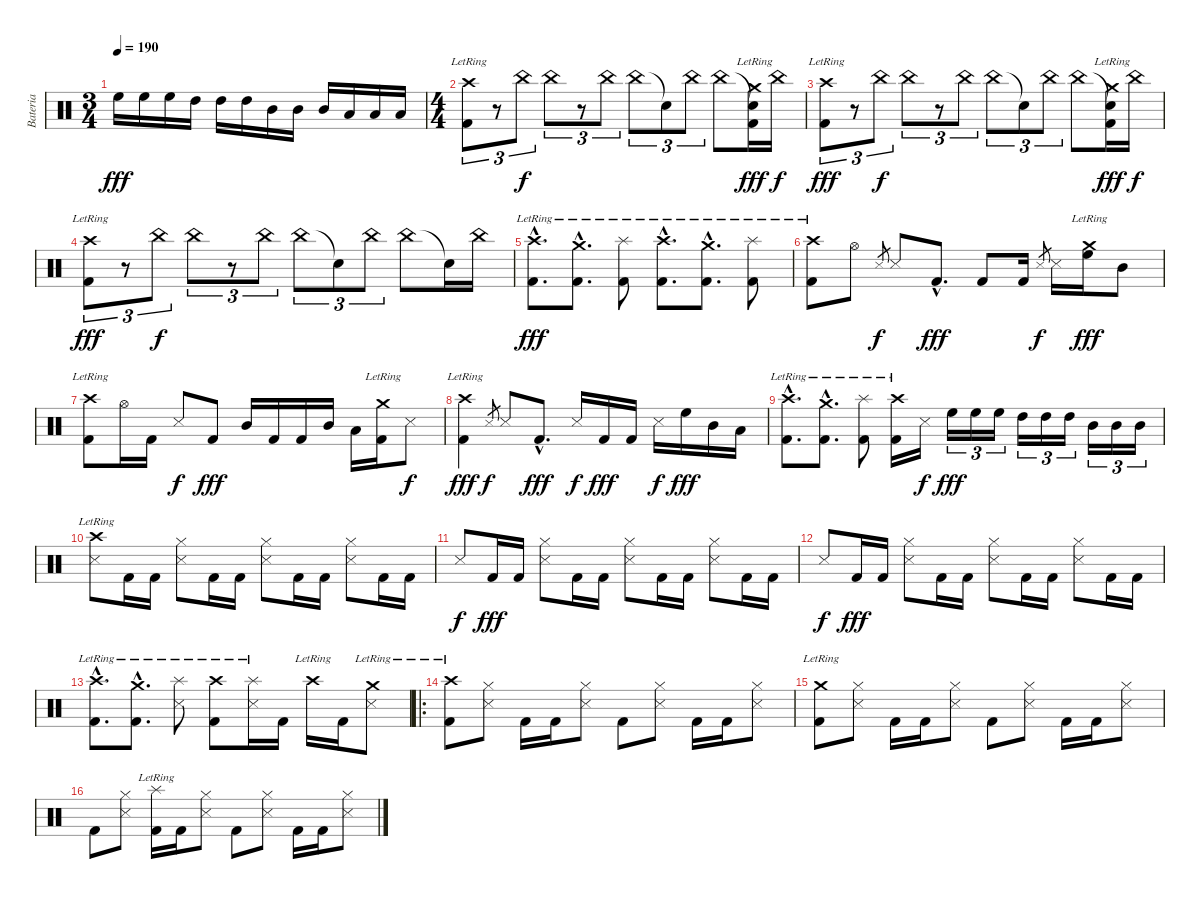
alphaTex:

\track ("Bateria" "Bateria") {instrument percussion}
\staff {score}
\articulation defaults
\ts (3 4)
\tempo 190
\clef neutral
\ks c "High Floor Tom (hit)".16{dy fff} "High Floor Tom (hit)".16 "High Floor Tom (hit)".16 "High Tom (hit)".16 "High Tom (hit)".16 "High Tom (hit)".16 "Mid Tom (hit)".16 "Mid Tom (hit)".16 "Mid Tom (hit)".16 "Low Tom (hit)".16 "Low Tom (hit)".16 "Low Tom (hit)".16
|
\ts (4 4)
("Crash high (hit)"{lr} "Kick (hit) 2").8{tu (3 2)} r.8{tu (3 2)} "China (hit)".8{tu (3 2) dy f} "China (hit)".8{tu (3 2)} r.8{tu (3 2)} "China (hit)".8{tu (3 2)} "China (hit)".8{tu (3 2)} "Snare (hit)"{t}.8{tu (3 2)} "China (hit)".8{tu (3 2)} "China (hit)".8 ("Snare (hit)"{t} "Crash medium (hit)"{lr} "Kick (hit) 2").16{dy fff} "China (hit)".16{dy f} |
("Crash high (hit)"{lr} "Kick (hit) 2").8{tu (3 2) dy fff} r.8{tu (3 2)} "China (hit)".8{tu (3 2) dy f} "China (hit)".8{tu (3 2)} r.8{tu (3 2)} "China (hit)".8{tu (3 2)} "China (hit)".8{tu (3 2)} "Snare (hit)"{t}.8{tu (3 2)} "China (hit)".8{tu (3 2)} "China (hit)".8 ("Snare (hit)"{t} "Crash medium (hit)"{lr} "Kick (hit) 2").16{dy fff} "China (hit)".16{dy f} |
("Crash high (hit)"{lr} "Kick (hit) 2").8{tu (3 2) dy fff} r.8{tu (3 2)} "China (hit)".8{tu (3 2) dy f} "China (hit)".8{tu (3 2)} r.8{tu (3 2)} "China (hit)".8{tu (3 2)} "China (hit)".8{tu (3 2)} "Snare (hit)"{t}.8{tu (3 2)} "China (hit)".8{tu (3 2)} "China (hit)".8 "Snare (hit)"{t}.16 "China (hit)".16 |
("Crash high (hit)"{hac lr} "Kick (hit) 2"{hac}).8{d dy fff} ("Crash medium (hit)"{hac lr} "Kick (hit) 2"{hac}).8{d} ("Splash (hit)"{lr} "Kick (hit) 2").8 ("Crash high (hit)"{hac lr} "Kick (hit) 2"{hac}).8{d} ("Crash medium (hit)"{hac lr} "Kick (hit) 2"{hac}).8{d} ("Splash (hit)"{lr} "Kick (hit) 2").8 |
("Crash high (hit)"{lr} "Kick (hit) 2").8 "Hi-Hat (open)".8 "Snare (side stick) 3".8{gr dy f} "Snare (side stick) 3".8 "Kick (hit) 2"{hac}.8{d dy fff} "Kick (hit) 2".8 "Kick (hit) 2".16 "Snare (side stick) 3".8{gr dy f} "Snare (side stick) 3".16 ("High Floor Tom (hit)" "Crash medium (hit)"{lr}).16{dy fff} "Mid Tom (hit)".8 |
("Crash high (hit)"{lr} "Kick (hit) 2").8 "Hi-Hat (open)".16 "Kick (hit) 2".16 "Snare (side stick) 3".8{dy f} "Kick (hit) 2".8{dy fff} "Mid Tom (hit)".16 "Kick (hit) 2".16 "Kick (hit) 2".16 "Mid Tom (hit)".16 "Low Tom (hit)".16 ("Crash medium (hit)"{lr} "Kick (hit) 2").16 "Snare (side stick) 3".8{dy f} |
("Crash high (hit)"{lr} "Kick (hit) 2").4{dy fff} "Snare (side stick) 3".8{gr dy f} "Snare (side stick) 3".8 "Kick (hit) 2"{hac}.8{d dy fff} "Snare (side stick) 3".16{dy f} "Kick (hit) 2".16{dy fff} "Kick (hit) 2".16 "Snare (side stick) 3".16{dy f} "High Floor Tom (hit)".16{dy fff} "Mid Tom (hit)".16 "Low Tom (hit)".16 |
("Crash high (hit)"{hac lr} "Kick (hit) 2"{hac}).8{d} ("Crash medium (hit)"{hac lr} "Kick (hit) 2"{hac}).8{d} ("Splash (hit)"{lr} "Kick (hit) 2").8 ("Crash high (hit)"{lr} "Kick (hit) 2").16 "Snare (side stick) 3".16{dy f} "High Floor Tom (hit)".16{tu (3 2) dy fff} "High Floor Tom (hit)".16{tu (3 2)} "High Floor Tom (hit)".16{tu (3 2)} "High Tom (hit)".16{tu (3 2)} "High Tom (hit)".16{tu (3 2)} "High Tom (hit)".16{tu (3 2)} "Mid Tom (hit)".16{tu (3 2)} "Mid Tom (hit)".16{tu (3 2)} "Mid Tom (hit)".16{tu (3 2)} |
("Crash high (hit)"{lr} "Snare (side stick) 3").8 "Kick (hit) 2".16 "Kick (hit) 2".16 ("Hi-Hat (closed)" "Snare (side stick) 3").8 "Kick (hit) 2".16 "Kick (hit) 2".16 ("Hi-Hat (closed)" "Snare (side stick) 3").8 "Kick (hit) 2".16 "Kick (hit) 2".16 ("Hi-Hat (closed)" "Snare (side stick) 3").8 "Kick (hit) 2".16 "Kick (hit) 2".16 |
"Snare (side stick) 3".8{dy f} "Kick (hit) 2".16{dy fff} "Kick (hit) 2".16 ("Hi-Hat (closed)" "Snare (side stick) 3").8 "Kick (hit) 2".16 "Kick (hit) 2".16 ("Hi-Hat (closed)" "Snare (side stick) 3").8 "Kick (hit) 2".16 "Kick (hit) 2".16 ("Hi-Hat (closed)" "Snare (side stick) 3").8 "Kick (hit) 2".16 "Kick (hit) 2".16 |
"Snare (side stick) 3".8{dy f} "Kick (hit) 2".16{dy fff} "Kick (hit) 2".16 ("Hi-Hat (closed)" "Snare (side stick) 3").8 "Kick (hit) 2".16 "Kick (hit) 2".16 ("Hi-Hat (closed)" "Snare (side stick) 3").8 "Kick (hit) 2".16 "Kick (hit) 2".16 ("Hi-Hat (closed)" "Snare (side stick) 3").8 "Kick (hit) 2".16 "Kick (hit) 2".16 |
("Crash high (hit)"{hac lr} "Kick (hit) 2"{hac}).8{d} ("Crash medium (hit)"{hac lr} "Kick (hit) 2"{hac}).8{d} ("Snare (side stick) 3" "Splash (hit)"{lr}).8 ("Crash high (hit)"{lr} "Kick (hit) 2").8 ("Snare (side stick) 3" "Splash (hit)"{lr}).16 "Kick (hit) 2".16 "Crash high (hit)"{lr}.16 "Kick (hit) 2".16 ("Snare (side stick) 3" "Crash medium (hit)"{lr}).8 |
\ro
("Crash high (hit)"{lr} "Kick (hit) 2").8 ("Hi-Hat (closed)" "Snare (side stick) 3").8 "Kick (hit) 2".16 "Kick (hit) 2".16 ("Hi-Hat (closed)" "Snare (side stick) 3").8 "Kick (hit) 2".8 ("Hi-Hat (closed)" "Snare (side stick) 3").8 "Kick (hit) 2".16 "Kick (hit) 2".16 ("Hi-Hat (closed)" "Snare (side stick) 3").8 |
("Crash medium (hit)"{lr} "Kick (hit) 2").8 ("Hi-Hat (closed)" "Snare (side stick) 3").8 "Kick (hit) 2".16 "Kick (hit) 2".16 ("Hi-Hat (closed)" "Snare (side stick) 3").8 "Kick (hit) 2".8 ("Hi-Hat (closed)" "Snare (side stick) 3").8 "Kick (hit) 2".16 "Kick (hit) 2".16 ("Hi-Hat (closed)" "Snare (side stick) 3").8 |
"Kick (hit) 2".8 ("Hi-Hat (closed)" "Snare (side stick) 3").8 ("Splash (hit)"{lr} "Kick (hit) 2").16 "Kick (hit) 2".16 ("Hi-Hat (closed)" "Snare (side stick) 3").8 "Kick (hit) 2".8 ("Hi-Hat (closed)" "Snare (side stick) 3").8 "Kick (hit) 2".16 "Kick (hit) 2".16 ("Hi-Hat (closed)" "Snare (side stick) 3").8
